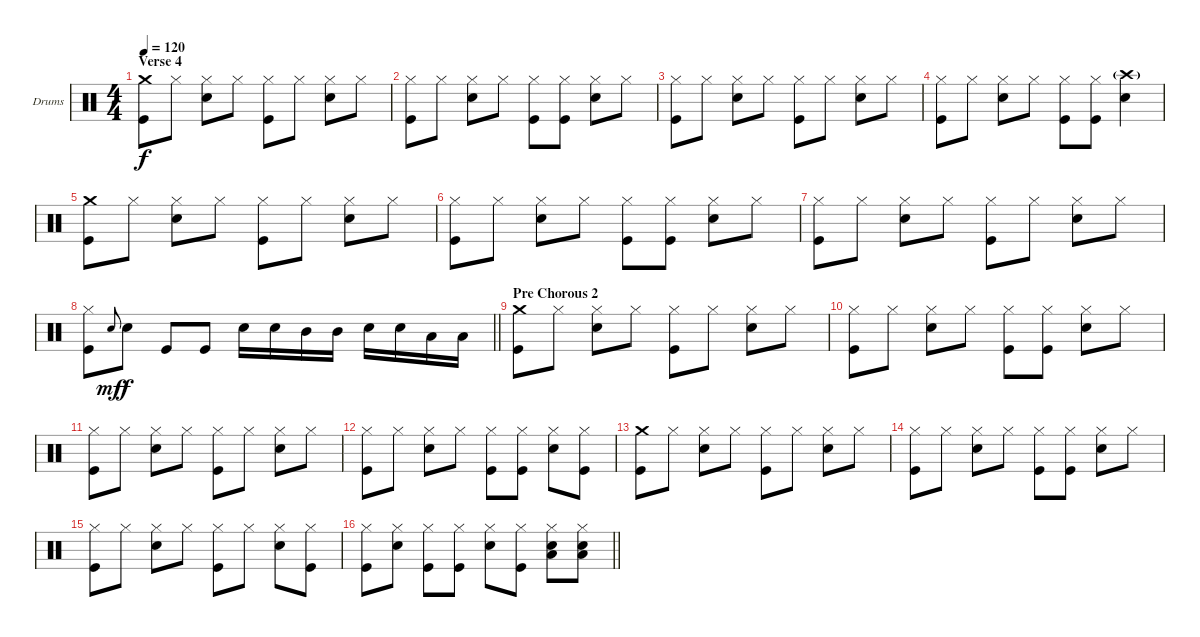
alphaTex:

\bracketExtendMode groupsimilarinstruments
\firstSystemTrackNameOrientation horizontal
\otherSystemsTrackNameOrientation horizontal
\track ("Drumkit" "Drums") {instrument percussion}
\staff {score}
\articulation defaults
\ts (4 4)
\section ("" "Verse 4")
\tempo 120
\clef neutral
\ks c
("Crash medium (hit)" "Kick (hit)").8{dy f} "Hi-Hat (closed)".8 ("Hi-Hat (closed)" "Snare (hit) 2").8 "Hi-Hat (closed)".8 ("Hi-Hat (closed)" "Kick (hit)").8 "Hi-Hat (closed)".8 ("Hi-Hat (closed)" "Snare (hit) 2").8 "Hi-Hat (closed)".8 |
("Hi-Hat (closed)" "Kick (hit)").8 "Hi-Hat (closed)".8 ("Hi-Hat (closed)" "Snare (hit) 2").8 "Hi-Hat (closed)".8 ("Hi-Hat (closed)" "Kick (hit)").8 ("Hi-Hat (closed)" "Kick (hit)").8 ("Hi-Hat (closed)" "Snare (hit) 2").8 "Hi-Hat (closed)".8 |
("Hi-Hat (closed)" "Kick (hit)").8 "Hi-Hat (closed)".8 ("Hi-Hat (closed)" "Snare (hit) 2").8 "Hi-Hat (closed)".8 ("Hi-Hat (closed)" "Kick (hit)").8 "Hi-Hat (closed)".8 ("Hi-Hat (closed)" "Snare (hit) 2").8 "Hi-Hat (closed)".8 |
("Hi-Hat (closed)" "Kick (hit)").8 "Hi-Hat (closed)".8 ("Hi-Hat (closed)" "Snare (hit) 2").8 "Hi-Hat (closed)".8 ("Hi-Hat (closed)" "Kick (hit)").8 ("Hi-Hat (closed)" "Kick (hit)").8 ("Crash high (hit)"{g} "Snare (hit) 2").4 |
("Crash medium (hit)" "Kick (hit)").8 "Hi-Hat (closed)".8 ("Hi-Hat (closed)" "Snare (hit) 2").8 "Hi-Hat (closed)".8 ("Hi-Hat (closed)" "Kick (hit)").8 "Hi-Hat (closed)".8 ("Hi-Hat (closed)" "Snare (hit) 2").8 "Hi-Hat (closed)".8 |
("Hi-Hat (closed)" "Kick (hit)").8 "Hi-Hat (closed)".8 ("Hi-Hat (closed)" "Snare (hit) 2").8 "Hi-Hat (closed)".8 ("Hi-Hat (closed)" "Kick (hit)").8 ("Hi-Hat (closed)" "Kick (hit)").8 ("Hi-Hat (closed)" "Snare (hit) 2").8 "Hi-Hat (closed)".8 |
("Hi-Hat (closed)" "Kick (hit)").8 "Hi-Hat (closed)".8 ("Hi-Hat (closed)" "Snare (hit) 2").8 "Hi-Hat (closed)".8 ("Hi-Hat (closed)" "Kick (hit)").8 "Hi-Hat (closed)".8 ("Hi-Hat (closed)" "Snare (hit) 2").8 "Hi-Hat (closed)".8 |
\barLineRight lightlight
("Hi-Hat (closed)" "Kick (hit)").8 "Snare (hit) 2".8{gr onbeat dy mf} "Snare (hit) 2".8{dy f} "Kick (hit)".8 "Kick (hit)".8 "Snare (hit) 2".16 "Snare (hit) 2".16 "Mid Tom (hit)".16 "Mid Tom (hit)".16 "Snare (hit) 2".16 "Snare (hit) 2".16 "Low Tom (hit)".16 "Low Tom (hit)".16 |
\section ("" "Pre Chorous 2")
("Crash medium (hit)" "Kick (hit)").8 "Hi-Hat (closed)".8 ("Hi-Hat (closed)" "Snare (hit) 2").8 "Hi-Hat (closed)".8 ("Hi-Hat (closed)" "Kick (hit)").8 "Hi-Hat (closed)".8 ("Hi-Hat (closed)" "Snare (hit) 2").8 "Hi-Hat (closed)".8 |
("Hi-Hat (closed)" "Kick (hit)").8 "Hi-Hat (closed)".8 ("Hi-Hat (closed)" "Snare (hit) 2").8 "Hi-Hat (closed)".8 ("Hi-Hat (closed)" "Kick (hit)").8 ("Hi-Hat (closed)" "Kick (hit)").8 ("Hi-Hat (closed)" "Snare (hit) 2").8 "Hi-Hat (closed)".8 |
("Hi-Hat (closed)" "Kick (hit)").8 "Hi-Hat (closed)".8 ("Hi-Hat (closed)" "Snare (hit) 2").8 "Hi-Hat (closed)".8 ("Hi-Hat (closed)" "Kick (hit)").8 "Hi-Hat (closed)".8 ("Hi-Hat (closed)" "Snare (hit) 2").8 "Hi-Hat (closed)".8 |
("Hi-Hat (closed)" "Kick (hit)").8 "Hi-Hat (closed)".8 ("Hi-Hat (closed)" "Snare (hit) 2").8 "Hi-Hat (closed)".8 ("Hi-Hat (closed)" "Kick (hit)").8 ("Hi-Hat (closed)" "Kick (hit)").8 ("Hi-Hat (closed)" "Snare (hit) 2").8 ("Hi-Hat (closed)" "Kick (hit)").8 |
("Crash medium (hit)" "Kick (hit)").8 "Hi-Hat (closed)".8 ("Hi-Hat (closed)" "Snare (hit) 2").8 "Hi-Hat (closed)".8 ("Hi-Hat (closed)" "Kick (hit)").8 "Hi-Hat (closed)".8 ("Hi-Hat (closed)" "Snare (hit) 2").8 "Hi-Hat (closed)".8 |
("Hi-Hat (closed)" "Kick (hit)").8 "Hi-Hat (closed)".8 ("Hi-Hat (closed)" "Snare (hit) 2").8 "Hi-Hat (closed)".8 ("Hi-Hat (closed)" "Kick (hit)").8 ("Hi-Hat (closed)" "Kick (hit)").8 ("Hi-Hat (closed)" "Snare (hit) 2").8 "Hi-Hat (closed)".8 |
("Hi-Hat (closed)" "Kick (hit)").8 "Hi-Hat (closed)".8 ("Hi-Hat (closed)" "Snare (hit) 2").8 "Hi-Hat (closed)".8 ("Hi-Hat (closed)" "Kick (hit)").8 "Hi-Hat (closed)".8 ("Hi-Hat (closed)" "Snare (hit) 2").8 ("Hi-Hat (closed)" "Kick (hit)").8 |
\barLineRight lightlight
("Hi-Hat (closed)" "Kick (hit)").8 ("Hi-Hat (closed)" "Snare (hit) 2").8 ("Hi-Hat (closed)" "Kick (hit)").8 ("Hi-Hat (closed)" "Kick (hit)").8 ("Hi-Hat (closed)" "Snare (hit) 2").8 ("Hi-Hat (closed)" "Kick (hit)").8 ("Hi-Hat (closed)" "Snare (hit) 2" "Low Tom (hit)").8 ("Hi-Hat (closed)" "Snare (hit) 2" "Low Tom (hit)").8
